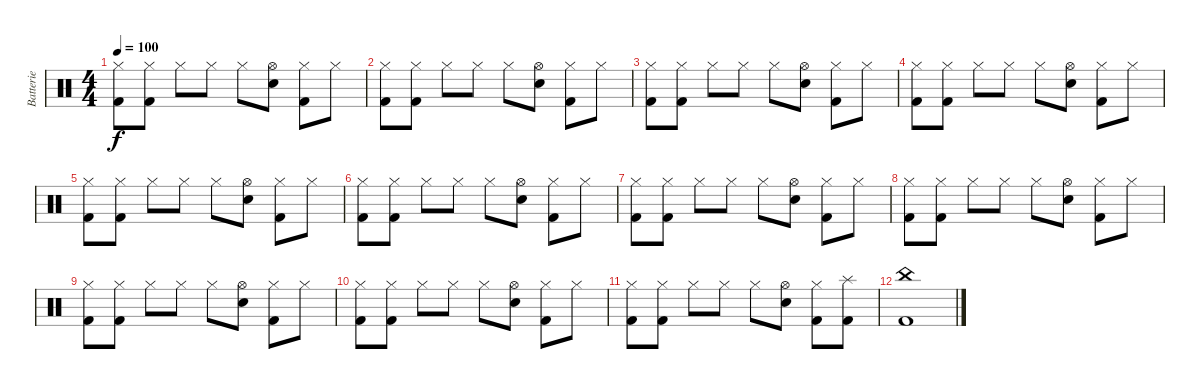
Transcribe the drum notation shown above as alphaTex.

\track ("Batterie" "Batterie") {instrument percussion}
\staff {score}
\articulation defaults
\ts (4 4)
\tempo 100
\clef neutral
\ks c
("Hi-Hat (closed)" "Kick (hit) 2").8{dy f} ("Hi-Hat (closed)" "Kick (hit) 2").8 "Hi-Hat (closed)".8 "Hi-Hat (closed)".8 "Hi-Hat (closed)".8 ("Hi-Hat (open)" "Snare (hit) 2").8 ("Hi-Hat (closed)" "Kick (hit) 2").8 "Hi-Hat (closed)".8 |
("Hi-Hat (closed)" "Kick (hit) 2").8 ("Hi-Hat (closed)" "Kick (hit) 2").8 "Hi-Hat (closed)".8 "Hi-Hat (closed)".8 "Hi-Hat (closed)".8 ("Hi-Hat (open)" "Snare (hit) 2").8 ("Hi-Hat (closed)" "Kick (hit) 2").8 "Hi-Hat (closed)".8 |
("Hi-Hat (closed)" "Kick (hit) 2").8 ("Hi-Hat (closed)" "Kick (hit) 2").8 "Hi-Hat (closed)".8 "Hi-Hat (closed)".8 "Hi-Hat (closed)".8 ("Hi-Hat (open)" "Snare (hit) 2").8 ("Hi-Hat (closed)" "Kick (hit) 2").8 "Hi-Hat (closed)".8 |
("Hi-Hat (closed)" "Kick (hit) 2").8 ("Hi-Hat (closed)" "Kick (hit) 2").8 "Hi-Hat (closed)".8 "Hi-Hat (closed)".8 "Hi-Hat (closed)".8 ("Hi-Hat (open)" "Snare (hit) 2").8 ("Hi-Hat (closed)" "Kick (hit) 2").8 "Hi-Hat (closed)".8 |
("Hi-Hat (closed)" "Kick (hit) 2").8 ("Hi-Hat (closed)" "Kick (hit) 2").8 "Hi-Hat (closed)".8 "Hi-Hat (closed)".8 "Hi-Hat (closed)".8 ("Hi-Hat (open)" "Snare (hit) 2").8 ("Hi-Hat (closed)" "Kick (hit) 2").8 "Hi-Hat (closed)".8 |
("Hi-Hat (closed)" "Kick (hit) 2").8 ("Hi-Hat (closed)" "Kick (hit) 2").8 "Hi-Hat (closed)".8 "Hi-Hat (closed)".8 "Hi-Hat (closed)".8 ("Hi-Hat (open)" "Snare (hit) 2").8 ("Hi-Hat (closed)" "Kick (hit) 2").8 "Hi-Hat (closed)".8 |
("Hi-Hat (closed)" "Kick (hit) 2").8 ("Hi-Hat (closed)" "Kick (hit) 2").8 "Hi-Hat (closed)".8 "Hi-Hat (closed)".8 "Hi-Hat (closed)".8 ("Hi-Hat (open)" "Snare (hit) 2").8 ("Hi-Hat (closed)" "Kick (hit) 2").8 "Hi-Hat (closed)".8 |
("Hi-Hat (closed)" "Kick (hit) 2").8 ("Hi-Hat (closed)" "Kick (hit) 2").8 "Hi-Hat (closed)".8 "Hi-Hat (closed)".8 "Hi-Hat (closed)".8 ("Hi-Hat (open)" "Snare (hit) 2").8 ("Hi-Hat (closed)" "Kick (hit) 2").8 "Hi-Hat (closed)".8 |
("Hi-Hat (closed)" "Kick (hit) 2").8 ("Hi-Hat (closed)" "Kick (hit) 2").8 "Hi-Hat (closed)".8 "Hi-Hat (closed)".8 "Hi-Hat (closed)".8 ("Hi-Hat (open)" "Snare (hit) 2").8 ("Hi-Hat (closed)" "Kick (hit) 2").8 "Hi-Hat (closed)".8 |
("Hi-Hat (closed)" "Kick (hit) 2").8 ("Hi-Hat (closed)" "Kick (hit) 2").8 "Hi-Hat (closed)".8 "Hi-Hat (closed)".8 "Hi-Hat (closed)".8 ("Hi-Hat (open)" "Snare (hit) 2").8 ("Hi-Hat (closed)" "Kick (hit) 2").8 "Hi-Hat (closed)".8 |
("Hi-Hat (closed)" "Kick (hit) 2").8 ("Hi-Hat (closed)" "Kick (hit) 2").8 "Hi-Hat (closed)".8 "Hi-Hat (closed)".8 "Hi-Hat (closed)".8 ("Hi-Hat (open)" "Snare (hit) 2").8 ("Hi-Hat (closed)" "Kick (hit) 2").8 ("Splash (hit)" "Kick (hit) 2").8 |
("China (hit)" "Kick (hit) 2").1
